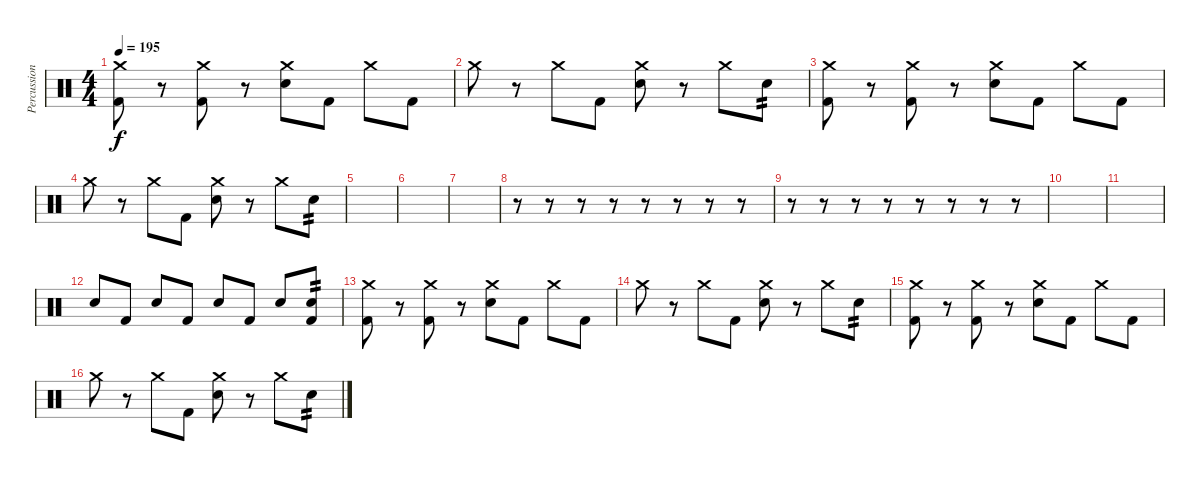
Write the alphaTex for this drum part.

\track ("Percussion" "Percussion") {instrument percussion}
\staff {score}
\articulation defaults
\ts (4 4)
\tempo 195
\clef neutral
\ks c
("Crash medium (hit)" "Kick (hit) 2").8{dy f} r.8 ("Crash medium (hit)" "Kick (hit) 2").8 r.8 ("Crash medium (hit)" "Electric Snare (hit)").8 "Kick (hit) 2".8 "Crash medium (hit)".8 "Kick (hit) 2".8 |
"Crash medium (hit)".8 r.8 "Crash medium (hit)".8 "Kick (hit) 2".8 ("Crash medium (hit)" "Electric Snare (hit)").8 r.8 "Crash medium (hit)".8 "Electric Snare (hit)".8{tp 2} |
("Crash medium (hit)" "Kick (hit) 2").8 r.8 ("Crash medium (hit)" "Kick (hit) 2").8 r.8 ("Crash medium (hit)" "Electric Snare (hit)").8 "Kick (hit) 2".8 "Crash medium (hit)".8 "Kick (hit) 2".8 |
"Crash medium (hit)".8 r.8 "Crash medium (hit)".8 "Kick (hit) 2".8 ("Crash medium (hit)" "Electric Snare (hit)").8 r.8 "Crash medium (hit)".8 "Electric Snare (hit)".8{tp 2} |
|
|
|
r.8 r.8 r.8 r.8 r.8 r.8 r.8 r.8 |
r.8 r.8 r.8 r.8 r.8 r.8 r.8 r.8 |
|
|
"Electric Snare (hit)".8 "Kick (hit) 2".8 "Electric Snare (hit)".8 "Kick (hit) 2".8 "Electric Snare (hit)".8 "Kick (hit) 2".8 "Electric Snare (hit)".8 ("Electric Snare (hit)" "Kick (hit) 2").8{tp 2} |
("Crash medium (hit)" "Kick (hit) 2").8 r.8 ("Crash medium (hit)" "Kick (hit) 2").8 r.8 ("Crash medium (hit)" "Electric Snare (hit)").8 "Kick (hit) 2".8 "Crash medium (hit)".8 "Kick (hit) 2".8 |
"Crash medium (hit)".8 r.8 "Crash medium (hit)".8 "Kick (hit) 2".8 ("Crash medium (hit)" "Electric Snare (hit)").8 r.8 "Crash medium (hit)".8 "Electric Snare (hit)".8{tp 2} |
("Crash medium (hit)" "Kick (hit) 2").8 r.8 ("Crash medium (hit)" "Kick (hit) 2").8 r.8 ("Crash medium (hit)" "Electric Snare (hit)").8 "Kick (hit) 2".8 "Crash medium (hit)".8 "Kick (hit) 2".8 |
"Crash medium (hit)".8 r.8 "Crash medium (hit)".8 "Kick (hit) 2".8 ("Crash medium (hit)" "Electric Snare (hit)").8 r.8 "Crash medium (hit)".8 "Electric Snare (hit)".8{tp 2}
